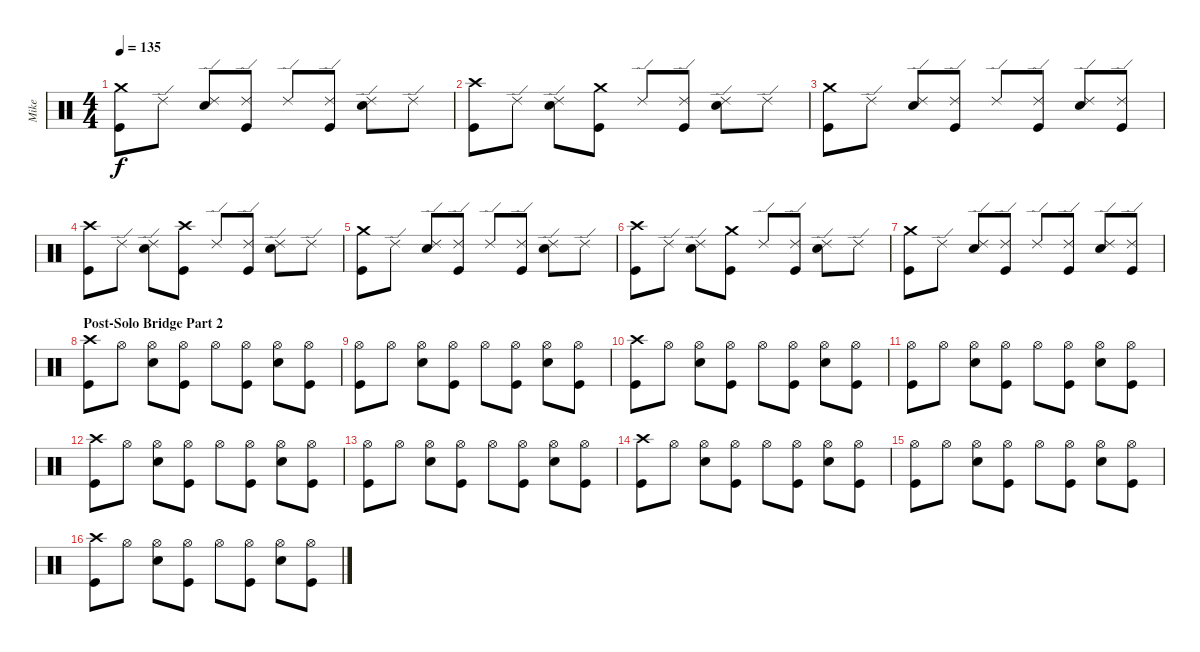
\track ("Mike" "Mike") {instrument percussion}
\staff {score}
\articulation defaults
\ts (4 4)
\tempo 135
\clef neutral
\ks c
("Crash medium (hit)" "Kick (hit)").8{dy f} "Ride (edge) 2".8 ("Ride (edge) 2" "Electric Snare (hit)").8 ("Ride (edge) 2" "Kick (hit)").8 "Ride (edge) 2".8 ("Ride (edge) 2" "Kick (hit)").8 ("Ride (edge) 2" "Electric Snare (hit)").8 "Ride (edge) 2".8 |
("Crash high (hit)" "Kick (hit)").8 "Ride (edge) 2".8 ("Ride (edge) 2" "Electric Snare (hit)").8 ("Crash medium (hit)" "Kick (hit)").8 "Ride (edge) 2".8 ("Ride (edge) 2" "Kick (hit)").8 ("Ride (edge) 2" "Electric Snare (hit)").8 "Ride (edge) 2".8 |
("Crash medium (hit)" "Kick (hit)").8 "Ride (edge) 2".8 ("Ride (edge) 2" "Electric Snare (hit)").8 ("Ride (edge) 2" "Kick (hit)").8 "Ride (edge) 2".8 ("Ride (edge) 2" "Kick (hit)").8 ("Ride (edge) 2" "Electric Snare (hit)").8 ("Ride (edge) 2" "Kick (hit)").8 |
("Crash high (hit)" "Kick (hit)").8 "Ride (edge) 2".8 ("Ride (edge) 2" "Electric Snare (hit)").8 ("Crash high (hit)" "Kick (hit)").8 "Ride (edge) 2".8 ("Ride (edge) 2" "Kick (hit)").8 ("Ride (edge) 2" "Electric Snare (hit)").8 "Ride (edge) 2".8 |
("Crash medium (hit)" "Kick (hit)").8 "Ride (edge) 2".8 ("Ride (edge) 2" "Electric Snare (hit)").8 ("Ride (edge) 2" "Kick (hit)").8 "Ride (edge) 2".8 ("Ride (edge) 2" "Kick (hit)").8 ("Ride (edge) 2" "Electric Snare (hit)").8 "Ride (edge) 2".8 |
("Crash high (hit)" "Kick (hit)").8 "Ride (edge) 2".8 ("Ride (edge) 2" "Electric Snare (hit)").8 ("Crash medium (hit)" "Kick (hit)").8 "Ride (edge) 2".8 ("Ride (edge) 2" "Kick (hit)").8 ("Ride (edge) 2" "Electric Snare (hit)").8 "Ride (edge) 2".8 |
("Crash medium (hit)" "Kick (hit)").8 "Ride (edge) 2".8 ("Ride (edge) 2" "Electric Snare (hit)").8 ("Ride (edge) 2" "Kick (hit)").8 "Ride (edge) 2".8 ("Ride (edge) 2" "Kick (hit)").8 ("Ride (edge) 2" "Electric Snare (hit)").8 ("Ride (edge) 2" "Kick (hit)").8 |
\section ("" "Post-Solo Bridge Part 2")
("Crash high (hit)" "Kick (hit)").8 "Hi-Hat (open)".8 ("Hi-Hat (open)" "Electric Snare (hit)").8 ("Hi-Hat (open)" "Kick (hit)").8 "Hi-Hat (open)".8 ("Hi-Hat (open)" "Kick (hit)").8 ("Hi-Hat (open)" "Electric Snare (hit)").8 ("Hi-Hat (open)" "Kick (hit)").8 |
("Hi-Hat (open)" "Kick (hit)").8 "Hi-Hat (open)".8 ("Hi-Hat (open)" "Electric Snare (hit)").8 ("Hi-Hat (open)" "Kick (hit)").8 "Hi-Hat (open)".8 ("Hi-Hat (open)" "Kick (hit)").8 ("Hi-Hat (open)" "Electric Snare (hit)").8 ("Hi-Hat (open)" "Kick (hit)").8 |
("Crash high (hit)" "Kick (hit)").8 "Hi-Hat (open)".8 ("Hi-Hat (open)" "Electric Snare (hit)").8 ("Hi-Hat (open)" "Kick (hit)").8 "Hi-Hat (open)".8 ("Hi-Hat (open)" "Kick (hit)").8 ("Hi-Hat (open)" "Electric Snare (hit)").8 ("Hi-Hat (open)" "Kick (hit)").8 |
("Hi-Hat (open)" "Kick (hit)").8 "Hi-Hat (open)".8 ("Hi-Hat (open)" "Electric Snare (hit)").8 ("Hi-Hat (open)" "Kick (hit)").8 "Hi-Hat (open)".8 ("Hi-Hat (open)" "Kick (hit)").8 ("Hi-Hat (open)" "Electric Snare (hit)").8 ("Hi-Hat (open)" "Kick (hit)").8 |
("Crash high (hit)" "Kick (hit)").8 "Hi-Hat (open)".8 ("Hi-Hat (open)" "Electric Snare (hit)").8 ("Hi-Hat (open)" "Kick (hit)").8 "Hi-Hat (open)".8 ("Hi-Hat (open)" "Kick (hit)").8 ("Hi-Hat (open)" "Electric Snare (hit)").8 ("Hi-Hat (open)" "Kick (hit)").8 |
("Hi-Hat (open)" "Kick (hit)").8 "Hi-Hat (open)".8 ("Hi-Hat (open)" "Electric Snare (hit)").8 ("Hi-Hat (open)" "Kick (hit)").8 "Hi-Hat (open)".8 ("Hi-Hat (open)" "Kick (hit)").8 ("Hi-Hat (open)" "Electric Snare (hit)").8 ("Hi-Hat (open)" "Kick (hit)").8 |
("Crash high (hit)" "Kick (hit)").8 "Hi-Hat (open)".8 ("Hi-Hat (open)" "Electric Snare (hit)").8 ("Hi-Hat (open)" "Kick (hit)").8 "Hi-Hat (open)".8 ("Hi-Hat (open)" "Kick (hit)").8 ("Hi-Hat (open)" "Electric Snare (hit)").8 ("Hi-Hat (open)" "Kick (hit)").8 |
("Hi-Hat (open)" "Kick (hit)").8 "Hi-Hat (open)".8 ("Hi-Hat (open)" "Electric Snare (hit)").8 ("Hi-Hat (open)" "Kick (hit)").8 "Hi-Hat (open)".8 ("Hi-Hat (open)" "Kick (hit)").8 ("Hi-Hat (open)" "Electric Snare (hit)").8 ("Hi-Hat (open)" "Kick (hit)").8 |
("Crash high (hit)" "Kick (hit)").8 "Hi-Hat (open)".8 ("Hi-Hat (open)" "Electric Snare (hit)").8 ("Hi-Hat (open)" "Kick (hit)").8 "Hi-Hat (open)".8 ("Hi-Hat (open)" "Kick (hit)").8 ("Hi-Hat (open)" "Electric Snare (hit)").8 ("Hi-Hat (open)" "Kick (hit)").8
